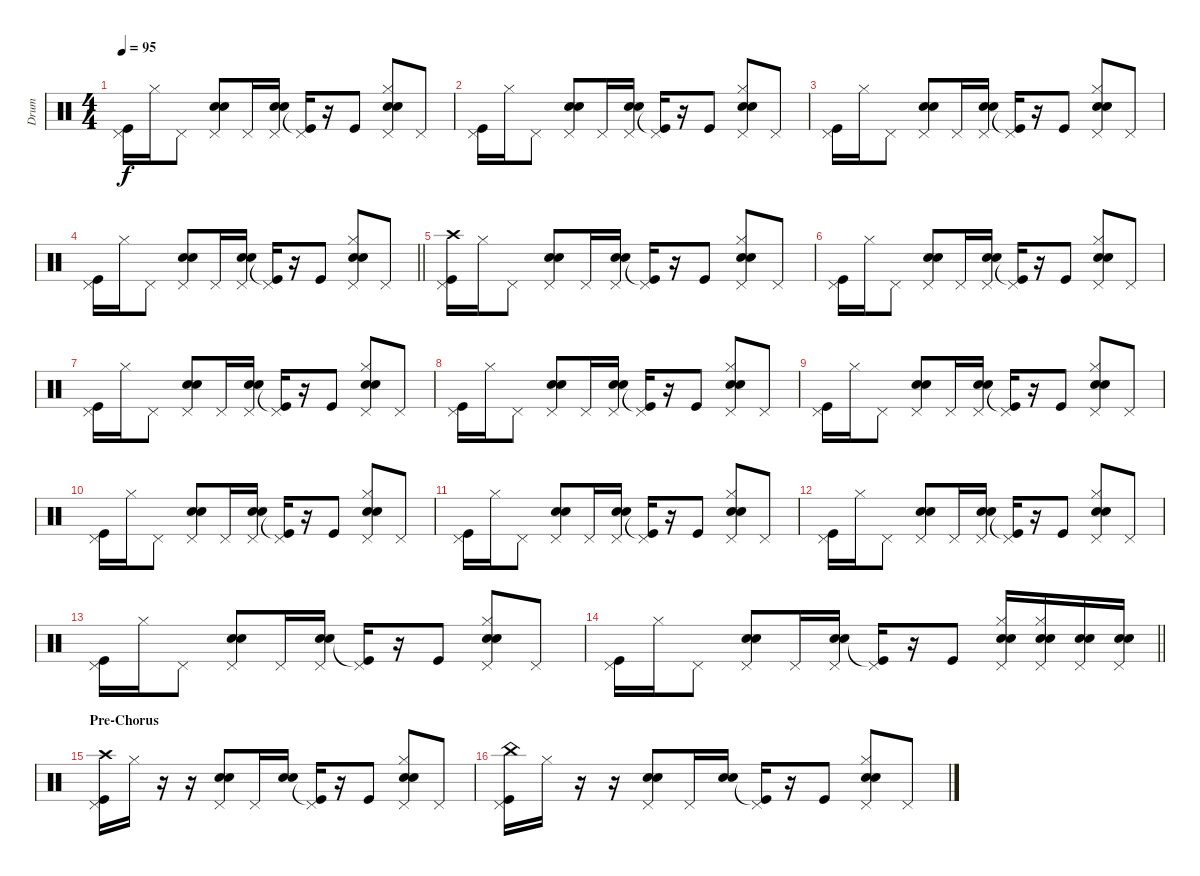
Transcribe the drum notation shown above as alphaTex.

\track ("Drum" "Drum") {instrument percussion}
\staff {score}
\articulation defaults
\ts (4 4)
\tempo 95
\clef neutral
\ks c
("Pedal Hi-Hat (hit)" "Kick (hit)").16{dy f} "Hi-Hat (closed)".16 "Pedal Hi-Hat (hit)".8 ("Pedal Hi-Hat (hit)" "Snare (hit) 2" "Snare (hit) 2").8 "Pedal Hi-Hat (hit)".16 ("Pedal Hi-Hat (hit)" "Snare (hit) 2" "Snare (hit) 2").16 ("Pedal Hi-Hat (hit)" "Kick (hit)"{t}).16 r.16 "Kick (hit)".8 ("Pedal Hi-Hat (hit)" "Hi-Hat (closed)" "Snare (hit) 2" "Snare (hit) 2").8 "Pedal Hi-Hat (hit)".8 |
("Pedal Hi-Hat (hit)" "Kick (hit)").16 "Hi-Hat (closed)".16 "Pedal Hi-Hat (hit)".8 ("Pedal Hi-Hat (hit)" "Snare (hit) 2" "Snare (hit) 2").8 "Pedal Hi-Hat (hit)".16 ("Pedal Hi-Hat (hit)" "Snare (hit) 2" "Snare (hit) 2").16 ("Pedal Hi-Hat (hit)" "Kick (hit)"{t}).16 r.16 "Kick (hit)".8 ("Pedal Hi-Hat (hit)" "Hi-Hat (closed)" "Snare (hit) 2" "Snare (hit) 2").8 "Pedal Hi-Hat (hit)".8 |
("Pedal Hi-Hat (hit)" "Kick (hit)").16 "Hi-Hat (closed)".16 "Pedal Hi-Hat (hit)".8 ("Pedal Hi-Hat (hit)" "Snare (hit) 2" "Snare (hit) 2").8 "Pedal Hi-Hat (hit)".16 ("Pedal Hi-Hat (hit)" "Snare (hit) 2" "Snare (hit) 2").16 ("Pedal Hi-Hat (hit)" "Kick (hit)"{t}).16 r.16 "Kick (hit)".8 ("Pedal Hi-Hat (hit)" "Hi-Hat (closed)" "Snare (hit) 2" "Snare (hit) 2").8 "Pedal Hi-Hat (hit)".8 |
\barLineRight lightlight
("Pedal Hi-Hat (hit)" "Kick (hit)").16 "Hi-Hat (closed)".16 "Pedal Hi-Hat (hit)".8 ("Pedal Hi-Hat (hit)" "Snare (hit) 2" "Snare (hit) 2").8 "Pedal Hi-Hat (hit)".16 ("Pedal Hi-Hat (hit)" "Snare (hit) 2" "Snare (hit) 2").16 ("Pedal Hi-Hat (hit)" "Kick (hit)"{t}).16 r.16 "Kick (hit)".8 ("Pedal Hi-Hat (hit)" "Hi-Hat (closed)" "Snare (hit) 2" "Snare (hit) 2").8 "Pedal Hi-Hat (hit)".8 |
("Pedal Hi-Hat (hit)" "Crash high (hit)" "Kick (hit)").16 "Hi-Hat (closed)".16 "Pedal Hi-Hat (hit)".8 ("Pedal Hi-Hat (hit)" "Snare (hit) 2" "Snare (hit) 2").8 "Pedal Hi-Hat (hit)".16 ("Pedal Hi-Hat (hit)" "Snare (hit) 2" "Snare (hit) 2").16 ("Pedal Hi-Hat (hit)" "Kick (hit)"{t}).16 r.16 "Kick (hit)".8 ("Pedal Hi-Hat (hit)" "Hi-Hat (closed)" "Snare (hit) 2" "Snare (hit) 2").8 "Pedal Hi-Hat (hit)".8 |
("Pedal Hi-Hat (hit)" "Kick (hit)").16 "Hi-Hat (closed)".16 "Pedal Hi-Hat (hit)".8 ("Pedal Hi-Hat (hit)" "Snare (hit) 2" "Snare (hit) 2").8 "Pedal Hi-Hat (hit)".16 ("Pedal Hi-Hat (hit)" "Snare (hit) 2" "Snare (hit) 2").16 ("Pedal Hi-Hat (hit)" "Kick (hit)"{t}).16 r.16 "Kick (hit)".8 ("Pedal Hi-Hat (hit)" "Hi-Hat (closed)" "Snare (hit) 2" "Snare (hit) 2").8 "Pedal Hi-Hat (hit)".8 |
("Pedal Hi-Hat (hit)" "Kick (hit)").16 "Hi-Hat (closed)".16 "Pedal Hi-Hat (hit)".8 ("Pedal Hi-Hat (hit)" "Snare (hit) 2" "Snare (hit) 2").8 "Pedal Hi-Hat (hit)".16 ("Pedal Hi-Hat (hit)" "Snare (hit) 2" "Snare (hit) 2").16 ("Pedal Hi-Hat (hit)" "Kick (hit)"{t}).16 r.16 "Kick (hit)".8 ("Pedal Hi-Hat (hit)" "Hi-Hat (closed)" "Snare (hit) 2" "Snare (hit) 2").8 "Pedal Hi-Hat (hit)".8 |
("Pedal Hi-Hat (hit)" "Kick (hit)").16 "Hi-Hat (closed)".16 "Pedal Hi-Hat (hit)".8 ("Pedal Hi-Hat (hit)" "Snare (hit) 2" "Snare (hit) 2").8 "Pedal Hi-Hat (hit)".16 ("Pedal Hi-Hat (hit)" "Snare (hit) 2" "Snare (hit) 2").16 ("Pedal Hi-Hat (hit)" "Kick (hit)"{t}).16 r.16 "Kick (hit)".8 ("Pedal Hi-Hat (hit)" "Hi-Hat (closed)" "Snare (hit) 2" "Snare (hit) 2").8 "Pedal Hi-Hat (hit)".8 |
("Pedal Hi-Hat (hit)" "Kick (hit)").16 "Hi-Hat (closed)".16 "Pedal Hi-Hat (hit)".8 ("Pedal Hi-Hat (hit)" "Snare (hit) 2" "Snare (hit) 2").8 "Pedal Hi-Hat (hit)".16 ("Pedal Hi-Hat (hit)" "Snare (hit) 2" "Snare (hit) 2").16 ("Pedal Hi-Hat (hit)" "Kick (hit)"{t}).16 r.16 "Kick (hit)".8 ("Pedal Hi-Hat (hit)" "Hi-Hat (closed)" "Snare (hit) 2" "Snare (hit) 2").8 "Pedal Hi-Hat (hit)".8 |
("Pedal Hi-Hat (hit)" "Kick (hit)").16 "Hi-Hat (closed)".16 "Pedal Hi-Hat (hit)".8 ("Pedal Hi-Hat (hit)" "Snare (hit) 2" "Snare (hit) 2").8 "Pedal Hi-Hat (hit)".16 ("Pedal Hi-Hat (hit)" "Snare (hit) 2" "Snare (hit) 2").16 ("Pedal Hi-Hat (hit)" "Kick (hit)"{t}).16 r.16 "Kick (hit)".8 ("Pedal Hi-Hat (hit)" "Hi-Hat (closed)" "Snare (hit) 2" "Snare (hit) 2").8 "Pedal Hi-Hat (hit)".8 |
("Pedal Hi-Hat (hit)" "Kick (hit)").16 "Hi-Hat (closed)".16 "Pedal Hi-Hat (hit)".8 ("Pedal Hi-Hat (hit)" "Snare (hit) 2" "Snare (hit) 2").8 "Pedal Hi-Hat (hit)".16 ("Pedal Hi-Hat (hit)" "Snare (hit) 2" "Snare (hit) 2").16 ("Pedal Hi-Hat (hit)" "Kick (hit)"{t}).16 r.16 "Kick (hit)".8 ("Pedal Hi-Hat (hit)" "Hi-Hat (closed)" "Snare (hit) 2" "Snare (hit) 2").8 "Pedal Hi-Hat (hit)".8 |
("Pedal Hi-Hat (hit)" "Kick (hit)").16 "Hi-Hat (closed)".16 "Pedal Hi-Hat (hit)".8 ("Pedal Hi-Hat (hit)" "Snare (hit) 2" "Snare (hit) 2").8 "Pedal Hi-Hat (hit)".16 ("Pedal Hi-Hat (hit)" "Snare (hit) 2" "Snare (hit) 2").16 ("Pedal Hi-Hat (hit)" "Kick (hit)"{t}).16 r.16 "Kick (hit)".8 ("Pedal Hi-Hat (hit)" "Hi-Hat (closed)" "Snare (hit) 2" "Snare (hit) 2").8 "Pedal Hi-Hat (hit)".8 |
("Pedal Hi-Hat (hit)" "Kick (hit)").16 "Hi-Hat (closed)".16 "Pedal Hi-Hat (hit)".8 ("Pedal Hi-Hat (hit)" "Snare (hit) 2" "Snare (hit) 2").8 "Pedal Hi-Hat (hit)".16 ("Pedal Hi-Hat (hit)" "Snare (hit) 2" "Snare (hit) 2").16 ("Pedal Hi-Hat (hit)" "Kick (hit)"{t}).16 r.16 "Kick (hit)".8 ("Pedal Hi-Hat (hit)" "Hi-Hat (closed)" "Snare (hit) 2" "Snare (hit) 2").8 "Pedal Hi-Hat (hit)".8 |
\barLineRight lightlight
("Pedal Hi-Hat (hit)" "Kick (hit)").16 "Hi-Hat (closed)".16 "Pedal Hi-Hat (hit)".8 ("Pedal Hi-Hat (hit)" "Snare (hit) 2" "Snare (hit) 2").8 "Pedal Hi-Hat (hit)".16 ("Pedal Hi-Hat (hit)" "Snare (hit) 2" "Snare (hit) 2").16 ("Pedal Hi-Hat (hit)" "Kick (hit)"{t}).16 r.16 "Kick (hit)".8 ("Pedal Hi-Hat (hit)" "Hi-Hat (closed)" "Electric Snare (hit)" "Electric Snare (hit)").16 ("Pedal Hi-Hat (hit)" "Hi-Hat (closed)" "Electric Snare (hit)" "Electric Snare (hit)").16 ("Pedal Hi-Hat (hit)" "Electric Snare (hit)" "Electric Snare (hit)").16 ("Pedal Hi-Hat (hit)" "Electric Snare (hit)" "Electric Snare (hit)").16 |
\section ("" "Pre-Chorus")
("Pedal Hi-Hat (hit)" "Crash high (hit)" "Kick (hit)").16 "Hi-Hat (closed)".16 r.16 r.16 ("Pedal Hi-Hat (hit)" "Snare (hit) 2" "Snare (hit) 2").8 "Pedal Hi-Hat (hit)".16 ("Snare (hit) 2" "Snare (hit) 2").16 ("Pedal Hi-Hat (hit)" "Kick (hit)"{t}).16 r.16 "Kick (hit)".8 ("Pedal Hi-Hat (hit)" "Hi-Hat (closed)" "Snare (hit) 2" "Snare (hit) 2").8 "Pedal Hi-Hat (hit)".8 |
("Pedal Hi-Hat (hit)" "China (hit)" "Kick (hit)").16 "Hi-Hat (closed)".16 r.16 r.16 ("Pedal Hi-Hat (hit)" "Snare (hit) 2" "Snare (hit) 2").8 "Pedal Hi-Hat (hit)".16 ("Snare (hit) 2" "Snare (hit) 2").16 ("Pedal Hi-Hat (hit)" "Kick (hit)"{t}).16 r.16 "Kick (hit)".8 ("Pedal Hi-Hat (hit)" "Hi-Hat (closed)" "Snare (hit) 2" "Snare (hit) 2").8 "Pedal Hi-Hat (hit)".8
